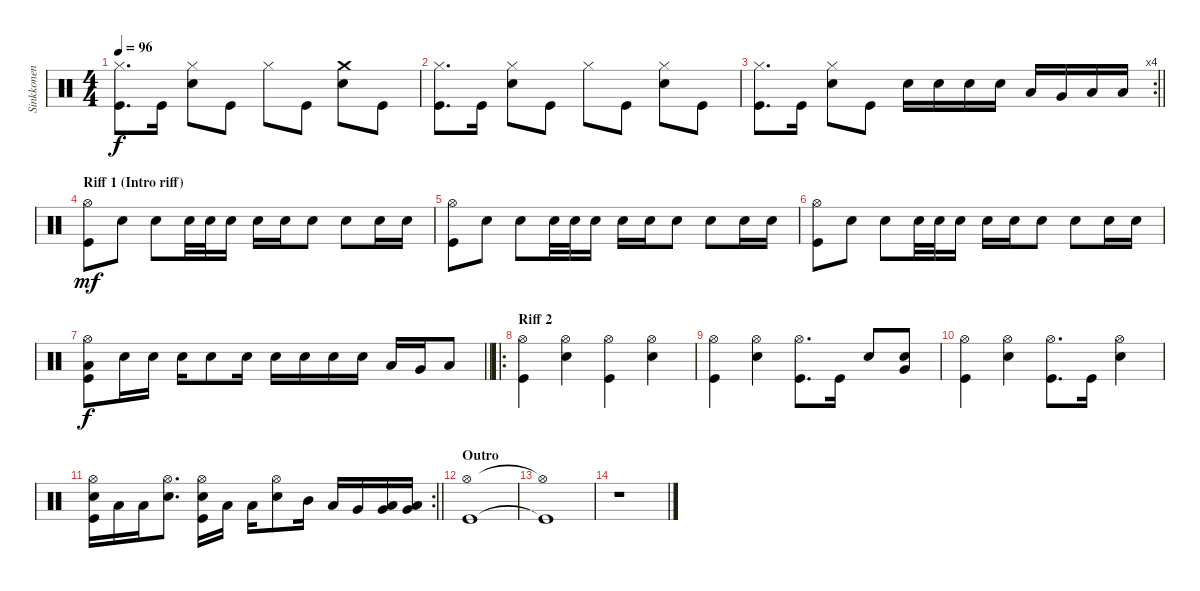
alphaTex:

\track ("Sinkkonen" "Sinkkonen") {instrument percussion}
\staff {score}
\articulation defaults
\ts (4 4)
\tempo 96
\clef neutral
\ks c
("Kick (hit)" "Hi-Hat (closed)").8{d dy f} "Kick (hit)".16 ("Electric Snare (hit)" "Hi-Hat (closed)").8 "Kick (hit)".8 "Hi-Hat (closed)".8 "Kick (hit)".8 ("Electric Snare (hit)" "Crash medium (hit)").8 "Kick (hit)".8 |
("Kick (hit)" "Hi-Hat (closed)").8{d} "Kick (hit)".16 ("Electric Snare (hit)" "Hi-Hat (closed)").8 "Kick (hit)".8 "Hi-Hat (closed)".8 "Kick (hit)".8 ("Electric Snare (hit)" "Hi-Hat (closed)").8 "Kick (hit)".8 |
\rc 4
\barLineRight lightlight
("Kick (hit)" "Hi-Hat (closed)").8{d} "Kick (hit)".16 ("Electric Snare (hit)" "Hi-Hat (closed)").8 "Kick (hit)".8 "Electric Snare (hit)".16 "Electric Snare (hit)".16 "Electric Snare (hit)".16 "Electric Snare (hit)".16 "Low Tom (hit)".16 "Very Low Tom (hit)".16 "Low Floor Tom (hit)".16 "Low Floor Tom (hit)".16 |
\section ("" "Riff 1 (Intro riff)")
("Hi-Hat (open)" "Kick (hit)").8{dy mf} "Electric Snare (hit)".8 "Electric Snare (hit)".8 "Electric Snare (hit)".32 "Electric Snare (hit)".32 "Electric Snare (hit)".16 "Electric Snare (hit)".16 "Electric Snare (hit)".16 "Electric Snare (hit)".8 "Electric Snare (hit)".8 "Electric Snare (hit)".16 "Electric Snare (hit)".16 |
("Hi-Hat (open)" "Kick (hit)").8 "Electric Snare (hit)".8 "Electric Snare (hit)".8 "Electric Snare (hit)".32 "Electric Snare (hit)".32 "Electric Snare (hit)".16 "Electric Snare (hit)".16 "Electric Snare (hit)".16 "Electric Snare (hit)".8 "Electric Snare (hit)".8 "Electric Snare (hit)".16 "Electric Snare (hit)".16 |
("Hi-Hat (open)" "Kick (hit)").8 "Electric Snare (hit)".8 "Electric Snare (hit)".8 "Electric Snare (hit)".32 "Electric Snare (hit)".32 "Electric Snare (hit)".16 "Electric Snare (hit)".16 "Electric Snare (hit)".16 "Electric Snare (hit)".8 "Electric Snare (hit)".8 "Electric Snare (hit)".16 "Electric Snare (hit)".16 |
\barLineRight lightlight
("Kick (hit)" "Low Floor Tom (hit)" "Hi-Hat (open)").8{dy f} "Electric Snare (hit)".16 "Electric Snare (hit)".16 "Electric Snare (hit)".16 "Electric Snare (hit)".8 "Electric Snare (hit)".16 "Electric Snare (hit)".16 "Electric Snare (hit)".16 "Electric Snare (hit)".16 "Electric Snare (hit)".16 "Low Tom (hit)".16 "Very Low Tom (hit)".16 "Low Floor Tom (hit)".8 |
\ro
\section ("" "Riff 2")
("Kick (hit)" "Hi-Hat (open)").4 ("Electric Snare (hit)" "Hi-Hat (open)").4 ("Kick (hit)" "Hi-Hat (open)").4 ("Electric Snare (hit)" "Hi-Hat (open)").4 |
("Kick (hit)" "Hi-Hat (open)").4 ("Electric Snare (hit)" "Hi-Hat (open)").4 ("Kick (hit)" "Hi-Hat (open)").8{d} "Kick (hit)".16 "Electric Snare (hit)".8 ("Very Low Tom (hit)" "Electric Snare (hit)").8 |
("Kick (hit)" "Hi-Hat (open)").4 ("Electric Snare (hit)" "Hi-Hat (open)").4 ("Kick (hit)" "Hi-Hat (open)").8{d} "Kick (hit)".16 ("Electric Snare (hit)" "Hi-Hat (open)").4 |
\rc 2
\barLineRight lightlight
("Kick (hit)" "Electric Snare (hit)" "Hi-Hat (open)").16 "Low Floor Tom (hit)".16 "Low Floor Tom (hit)".16 ("Electric Snare (hit)" "Hi-Hat (open)").8{d} ("Kick (hit)" "Electric Snare (hit)" "Hi-Hat (open)").16 "Low Floor Tom (hit)".16 "Low Floor Tom (hit)".16 ("Electric Snare (hit)" "Hi-Hat (open)").8 "Mid Tom (hit)".16 "Low Tom (hit)".16 "Very Low Tom (hit)".16 ("Low Floor Tom (hit)" "Very Low Tom (hit)").16 ("Low Floor Tom (hit)" "Very Low Tom (hit)").16 |
\section ("" "Outro")
("Kick (hit)" "Hi-Hat (open)").1 |
("Kick (hit)"{t} "Hi-Hat (open)"{t}).1 |
r.1
